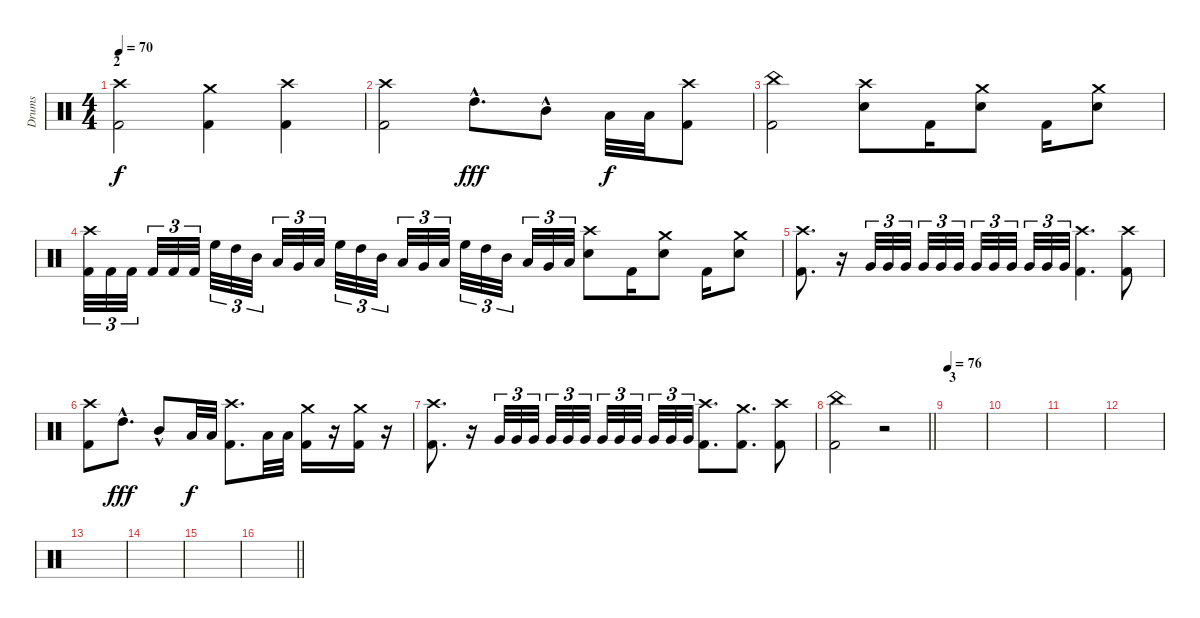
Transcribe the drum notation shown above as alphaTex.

\track ("Drums" "Drums") {instrument percussion}
\staff {score}
\articulation defaults
\ts (4 4)
\section ("" "2")
\tempo 70
\clef neutral
\ks c
("Crash high (hit)" "Kick (hit) 2").2{dy f} ("Crash medium (hit)" "Kick (hit) 2").4 ("Crash high (hit)" "Kick (hit) 2").4 |
("Crash high (hit)" "Kick (hit) 2").2 "High Tom (hit)"{hac}.8{d dy fff} "Mid Tom (hit)"{hac}.8 "Low Tom (hit)".32{dy f} "Low Tom (hit)".32 ("Crash high (hit)" "Kick (hit) 2").8 |
("China (hit)" "Kick (hit) 2").2 ("Crash high (hit)" "Snare (hit) 2").8 "Kick (hit) 2".16 ("Crash medium (hit)" "Snare (hit) 2").8 "Kick (hit) 2".16 ("Crash medium (hit)" "Snare (hit) 2").8 |
("Crash high (hit)" "Kick (hit) 2").32{tu (3 2)} "Kick (hit) 2".32{tu (3 2)} "Kick (hit) 2".32{tu (3 2) beam splitsecondary} "Kick (hit) 2".32{tu (3 2)} "Kick (hit) 2".32{tu (3 2)} "Kick (hit) 2".32{tu (3 2) beam splitsecondary} "High Floor Tom (hit)".32{tu (3 2)} "High Tom (hit)".32{tu (3 2)} "Mid Tom (hit)".32{tu (3 2) beam splitsecondary} "Low Tom (hit)".32{tu (3 2)} "Very Low Tom (hit)".32{tu (3 2)} "Low Floor Tom (hit)".32{tu (3 2)} "High Floor Tom (hit)".32{tu (3 2)} "High Tom (hit)".32{tu (3 2)} "Mid Tom (hit)".32{tu (3 2) beam splitsecondary} "Low Tom (hit)".32{tu (3 2)} "Very Low Tom (hit)".32{tu (3 2)} "Low Floor Tom (hit)".32{tu (3 2) beam splitsecondary} "High Floor Tom (hit)".32{tu (3 2)} "High Tom (hit)".32{tu (3 2)} "Mid Tom (hit)".32{tu (3 2) beam splitsecondary} "Low Tom (hit)".32{tu (3 2)} "Very Low Tom (hit)".32{tu (3 2)} "Low Floor Tom (hit)".32{tu (3 2)} ("Crash high (hit)" "Snare (hit) 2").8 "Kick (hit) 2".16 ("Crash medium (hit)" "Snare (hit) 2").8 "Kick (hit) 2".16 ("Crash medium (hit)" "Snare (hit) 2").8 |
("Crash high (hit)" "Kick (hit) 2").8{d} r.16{volume 6} "Very Low Tom (hit)".32{tu (3 2) volume 12} "Very Low Tom (hit)".32{tu (3 2)} "Very Low Tom (hit)".32{tu (3 2) beam splitsecondary} "Very Low Tom (hit)".32{tu (3 2)} "Very Low Tom (hit)".32{tu (3 2)} "Very Low Tom (hit)".32{tu (3 2) beam splitsecondary} "Very Low Tom (hit)".32{tu (3 2)} "Very Low Tom (hit)".32{tu (3 2)} "Very Low Tom (hit)".32{tu (3 2) beam splitsecondary} "Very Low Tom (hit)".32{tu (3 2)} "Very Low Tom (hit)".32{tu (3 2)} "Very Low Tom (hit)".32{tu (3 2)} ("Crash high (hit)" "Kick (hit) 2").4{d} ("Crash high (hit)" "Kick (hit) 2").8 |
("Crash high (hit)" "Kick (hit) 2").8 "High Tom (hit)"{hac}.8{d dy fff} "Mid Tom (hit)"{hac}.8 "Low Tom (hit)".32{dy f} "Low Tom (hit)".32 ("Crash high (hit)" "Kick (hit) 2").8{d} "Low Tom (hit)".32 "Low Tom (hit)".32 ("Crash medium (hit)" "Kick (hit) 2").16 r.16 ("Crash medium (hit)" "Kick (hit) 2").16 r.16 |
("Crash high (hit)" "Kick (hit) 2").8{d} r.16{volume 6} "Very Low Tom (hit)".32{tu (3 2) volume 12} "Very Low Tom (hit)".32{tu (3 2)} "Very Low Tom (hit)".32{tu (3 2) beam splitsecondary} "Very Low Tom (hit)".32{tu (3 2)} "Very Low Tom (hit)".32{tu (3 2)} "Very Low Tom (hit)".32{tu (3 2) beam splitsecondary} "Very Low Tom (hit)".32{tu (3 2)} "Very Low Tom (hit)".32{tu (3 2)} "Very Low Tom (hit)".32{tu (3 2) beam splitsecondary} "Very Low Tom (hit)".32{tu (3 2)} "Very Low Tom (hit)".32{tu (3 2)} "Very Low Tom (hit)".32{tu (3 2)} ("Crash high (hit)" "Kick (hit) 2").8{d} ("Crash medium (hit)" "Kick (hit) 2").8{d} ("Crash high (hit)" "Kick (hit) 2").8 |
\barLineRight lightlight
("China (hit)" "Kick (hit) 2").2 r.2 |
\section ("" "3")
\tempo 76
|
|
|
|
|
|
|
\barLineRight lightlight
